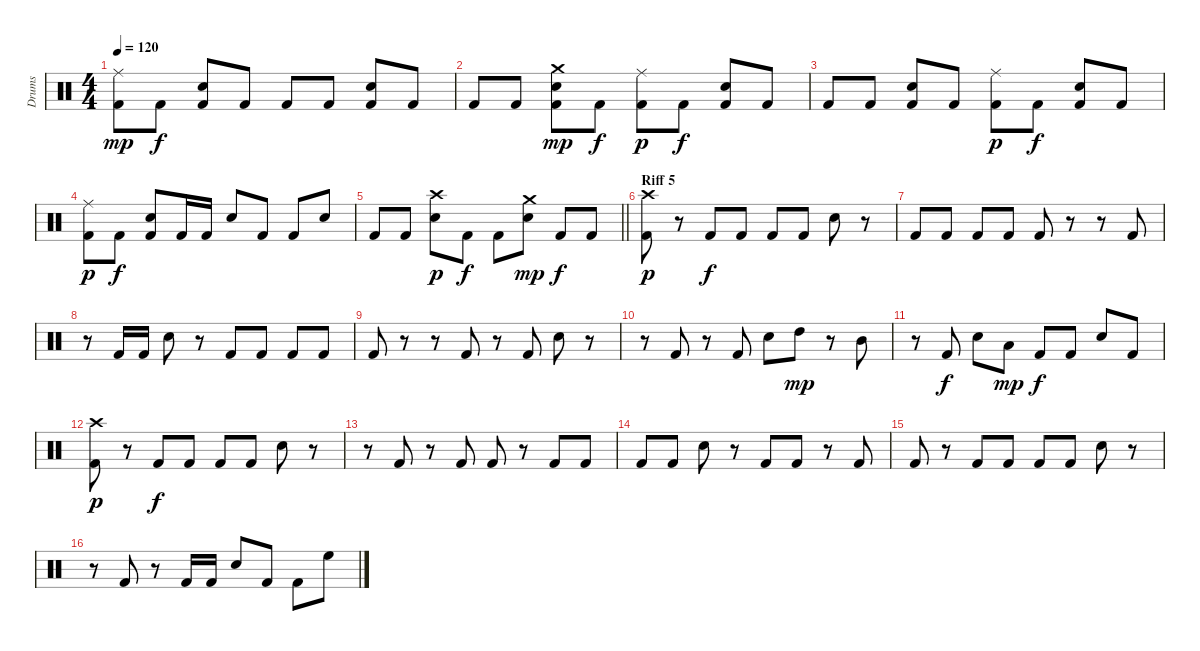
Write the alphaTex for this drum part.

\track ("Drums" "Drums") {instrument percussion}
\staff {score}
\articulation defaults
\ts (4 4)
\tempo 120
\clef neutral
\ks c
("Kick (hit) 2" "Ride (middle)").8{dy mp} "Kick (hit) 2".8{dy f} ("Kick (hit) 2" "Snare (hit) 2").8 "Kick (hit) 2".8 "Kick (hit) 2".8 "Kick (hit) 2".8 ("Kick (hit) 2" "Snare (hit) 2").8 "Kick (hit) 2".8 |
"Kick (hit) 2".8 "Kick (hit) 2".8 ("Kick (hit) 2" "Crash medium (hit)" "Snare (hit) 2").8{dy mp} "Kick (hit) 2".8{dy f} ("Kick (hit) 2" "Ride (middle)").8{dy p} "Kick (hit) 2".8{dy f} ("Kick (hit) 2" "Snare (hit) 2").8 "Kick (hit) 2".8 |
"Kick (hit) 2".8 "Kick (hit) 2".8 ("Kick (hit) 2" "Snare (hit) 2").8 "Kick (hit) 2".8 ("Kick (hit) 2" "Ride (middle)").8{dy p} "Kick (hit) 2".8{dy f} ("Kick (hit) 2" "Snare (hit) 2").8 "Kick (hit) 2".8 |
("Kick (hit) 2" "Ride (middle)").8{dy p} "Kick (hit) 2".8{dy f} ("Kick (hit) 2" "Snare (hit) 2").8 "Kick (hit) 2".16 "Kick (hit) 2".16 "Snare (hit) 2".8 "Kick (hit) 2".8 "Kick (hit) 2".8 "Snare (hit) 2".8 |
\barLineRight lightlight "Kick (hit) 2".8 "Kick (hit) 2".8
("Crash high (hit)" "Snare (hit) 2").8{dy p} "Kick (hit) 2".8{dy f} "Kick (hit) 2".8 ("Crash medium (hit)" "Snare (hit) 2").8{dy mp} "Kick (hit) 2".8{dy f} "Kick (hit) 2".8 |
\section ("" "Riff 5")
("Kick (hit) 2" "Crash high (hit)").8{dy p} r.8 "Kick (hit) 2".8{dy f} "Kick (hit) 2".8 "Kick (hit) 2".8 "Kick (hit) 2".8 "Snare (hit) 2".8 r.8 |
"Kick (hit) 2".8 "Kick (hit) 2".8 "Kick (hit) 2".8 "Kick (hit) 2".8 "Kick (hit) 2".8 r.8 r.8 "Kick (hit) 2".8 |
r.8 "Kick (hit) 2".16 "Kick (hit) 2".16 "Snare (hit) 2".8 r.8 "Kick (hit) 2".8 "Kick (hit) 2".8 "Kick (hit) 2".8 "Kick (hit) 2".8 |
"Kick (hit) 2".8 r.8 r.8 "Kick (hit) 2".8 r.8 "Kick (hit) 2".8 "Snare (hit) 2".8 r.8 |
r.8 "Kick (hit) 2".8 r.8 "Kick (hit) 2".8 "Snare (hit) 2".8 "High Tom (hit)".8{dy mp} r.8 "Mid Tom (hit)".8 |
r.8 "Kick (hit) 2".8{dy f} "Snare (hit) 2".8 "Low Tom (hit)".8{dy mp} "Kick (hit) 2".8{dy f} "Kick (hit) 2".8 "Snare (hit) 2".8 "Kick (hit) 2".8 |
("Kick (hit) 2" "Crash high (hit)").8{dy p} r.8 "Kick (hit) 2".8{dy f} "Kick (hit) 2".8 "Kick (hit) 2".8 "Kick (hit) 2".8 "Snare (hit) 2".8 r.8 |
r.8 "Kick (hit) 2".8 r.8 "Kick (hit) 2".8 "Kick (hit) 2".8 r.8 "Kick (hit) 2".8 "Kick (hit) 2".8 |
"Kick (hit) 2".8 "Kick (hit) 2".8 "Snare (hit) 2".8 r.8 "Kick (hit) 2".8 "Kick (hit) 2".8 r.8 "Kick (hit) 2".8 |
"Kick (hit) 2".8 r.8 "Kick (hit) 2".8 "Kick (hit) 2".8 "Kick (hit) 2".8 "Kick (hit) 2".8 "Snare (hit) 2".8 r.8 |
r.8 "Kick (hit) 2".8 r.8 "Kick (hit) 2".16 "Kick (hit) 2".16 "Snare (hit) 2".8 "Kick (hit) 2".8 "Kick (hit) 2".8 "High Floor Tom (hit)".8
